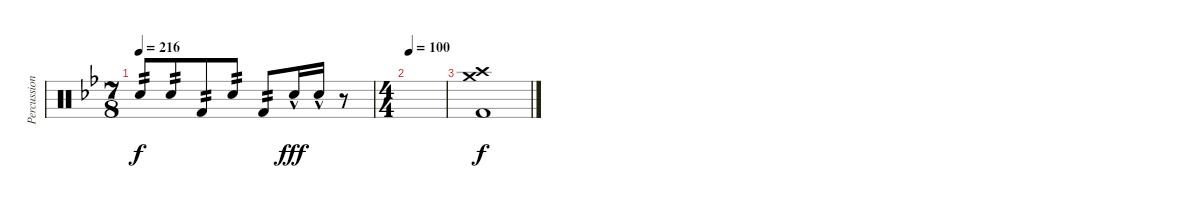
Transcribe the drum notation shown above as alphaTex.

\track ("Percussion" "Percussion") {instrument percussion}
\staff {score}
\articulation defaults
\ts (7 8)
\tempo 216
\clef neutral
\ks gminor "Electric Snare (hit)".8{tp 2 dy f} "Electric Snare (hit)".8{tp 2} "Kick (hit) 2".8{tp 2} "Electric Snare (hit)".8{tp 2} "Kick (hit) 2".8{tp 2} "Electric Snare (hit)"{hac}.16{dy fff} "Electric Snare (hit)"{hac}.16
r.8 |
\ts (4 4)
\tempo 100
|
("Crash medium (hit)" "Crash high (hit)" "Kick (hit) 2").1{dy f}
